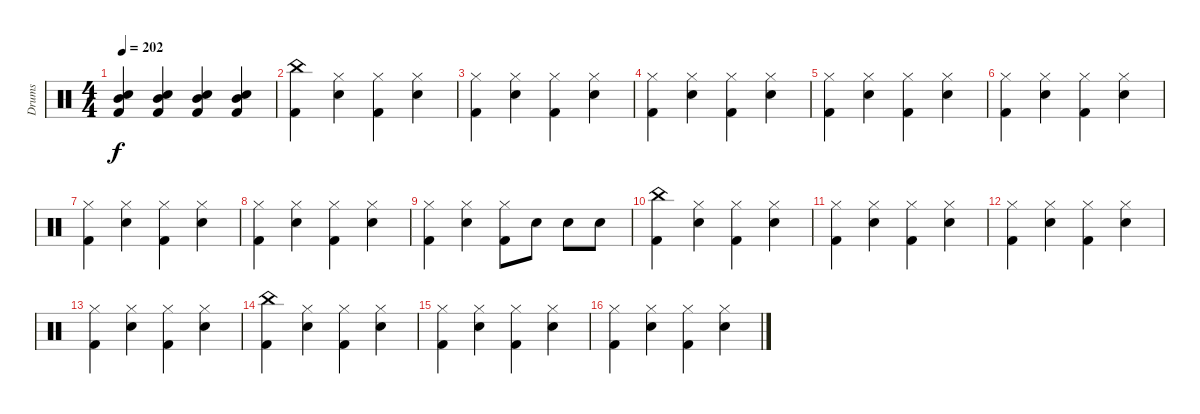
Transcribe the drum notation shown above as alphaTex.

\track ("Drums" "Drums") {instrument percussion}
\staff {score}
\articulation defaults
\ts (4 4)
\tempo 202
\clef neutral
\ks c
("Mid Tom (hit)" "Snare (hit) 2" "Kick (hit) 2").4{dy f} ("Mid Tom (hit)" "Snare (hit) 2" "Kick (hit) 2").4 ("Mid Tom (hit)" "Snare (hit) 2" "Kick (hit) 2").4 ("Mid Tom (hit)" "Snare (hit) 2" "Kick (hit) 2").4 |
("China (hit)" "Kick (hit) 2").4 ("Hi-Hat (closed)" "Snare (hit) 2").4 ("Hi-Hat (closed)" "Kick (hit) 2").4 ("Hi-Hat (closed)" "Snare (hit) 2").4 |
("Hi-Hat (closed)" "Kick (hit) 2").4 ("Hi-Hat (closed)" "Snare (hit) 2").4 ("Hi-Hat (closed)" "Kick (hit) 2").4 ("Hi-Hat (closed)" "Snare (hit) 2").4 |
("Hi-Hat (closed)" "Kick (hit) 2").4 ("Hi-Hat (closed)" "Snare (hit) 2").4 ("Hi-Hat (closed)" "Kick (hit) 2").4 ("Hi-Hat (closed)" "Snare (hit) 2").4 |
("Hi-Hat (closed)" "Kick (hit) 2").4 ("Hi-Hat (closed)" "Snare (hit) 2").4 ("Hi-Hat (closed)" "Kick (hit) 2").4 ("Hi-Hat (closed)" "Snare (hit) 2").4 |
("Hi-Hat (closed)" "Kick (hit) 2").4 ("Hi-Hat (closed)" "Snare (hit) 2").4 ("Hi-Hat (closed)" "Kick (hit) 2").4 ("Hi-Hat (closed)" "Snare (hit) 2").4 |
("Hi-Hat (closed)" "Kick (hit) 2").4 ("Hi-Hat (closed)" "Snare (hit) 2").4 ("Hi-Hat (closed)" "Kick (hit) 2").4 ("Hi-Hat (closed)" "Snare (hit) 2").4 |
("Hi-Hat (closed)" "Kick (hit) 2").4 ("Hi-Hat (closed)" "Snare (hit) 2").4 ("Hi-Hat (closed)" "Kick (hit) 2").4 ("Hi-Hat (closed)" "Snare (hit) 2").4 |
("Hi-Hat (closed)" "Kick (hit) 2").4 ("Hi-Hat (closed)" "Snare (hit) 2").4 ("Hi-Hat (closed)" "Kick (hit) 2").8 "Snare (hit) 2".8 "Snare (hit) 2".8 "Snare (hit) 2".8 |
("China (hit)" "Kick (hit) 2").4 ("Hi-Hat (closed)" "Snare (hit) 2").4 ("Hi-Hat (closed)" "Kick (hit) 2").4 ("Hi-Hat (closed)" "Snare (hit) 2").4 |
("Hi-Hat (closed)" "Kick (hit) 2").4 ("Hi-Hat (closed)" "Snare (hit) 2").4 ("Hi-Hat (closed)" "Kick (hit) 2").4 ("Hi-Hat (closed)" "Snare (hit) 2").4 |
("Hi-Hat (closed)" "Kick (hit) 2").4 ("Hi-Hat (closed)" "Snare (hit) 2").4 ("Hi-Hat (closed)" "Kick (hit) 2").4 ("Hi-Hat (closed)" "Snare (hit) 2").4 |
("Hi-Hat (closed)" "Kick (hit) 2").4 ("Hi-Hat (closed)" "Snare (hit) 2").4 ("Hi-Hat (closed)" "Kick (hit) 2").4 ("Hi-Hat (closed)" "Snare (hit) 2").4 |
("China (hit)" "Kick (hit) 2").4 ("Hi-Hat (closed)" "Snare (hit) 2").4 ("Hi-Hat (closed)" "Kick (hit) 2").4 ("Hi-Hat (closed)" "Snare (hit) 2").4 |
("Hi-Hat (closed)" "Kick (hit) 2").4 ("Hi-Hat (closed)" "Snare (hit) 2").4 ("Hi-Hat (closed)" "Kick (hit) 2").4 ("Hi-Hat (closed)" "Snare (hit) 2").4 |
("Hi-Hat (closed)" "Kick (hit) 2").4 ("Hi-Hat (closed)" "Snare (hit) 2").4 ("Hi-Hat (closed)" "Kick (hit) 2").4 ("Hi-Hat (closed)" "Snare (hit) 2").4
